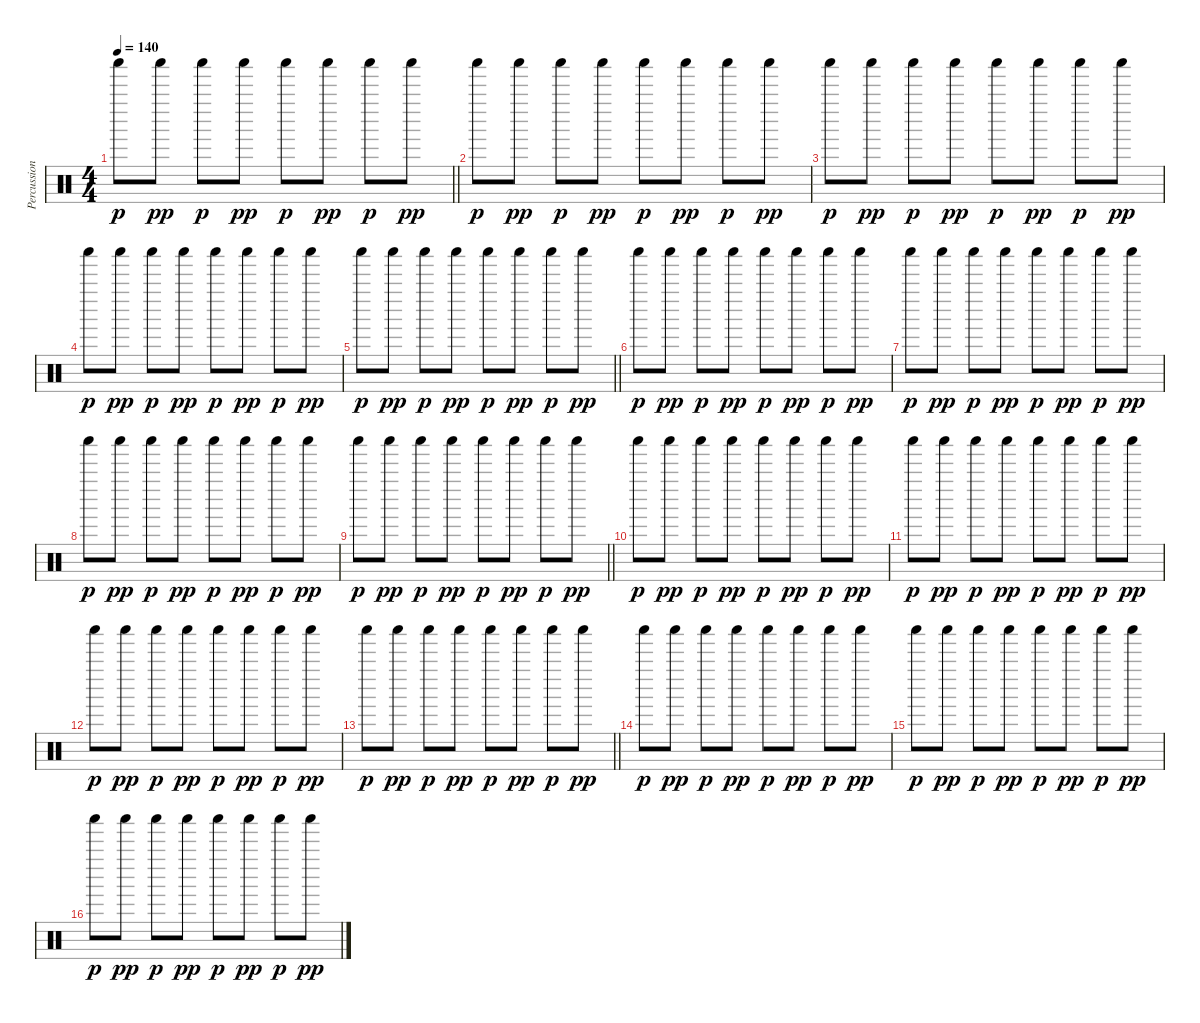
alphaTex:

\track ("Percussion" "Percussion") {instrument percussion}
\staff {score}
\articulation defaults
\ts (4 4)
\tempo 140
\clef neutral
\barLineRight lightlight
\ks c "Shaker (hit)".8{dy p} "Shaker (hit)".8{dy pp} "Shaker (hit)".8{dy p} "Shaker (hit)".8{dy pp} "Shaker (hit)".8{dy p} "Shaker (hit)".8{dy pp} "Shaker (hit)".8{dy p} "Shaker (hit)".8{dy pp}
|
"Shaker (hit)".8{dy p} "Shaker (hit)".8{dy pp} "Shaker (hit)".8{dy p} "Shaker (hit)".8{dy pp} "Shaker (hit)".8{dy p} "Shaker (hit)".8{dy pp} "Shaker (hit)".8{dy p} "Shaker (hit)".8{dy pp} |
"Shaker (hit)".8{dy p} "Shaker (hit)".8{dy pp} "Shaker (hit)".8{dy p} "Shaker (hit)".8{dy pp} "Shaker (hit)".8{dy p} "Shaker (hit)".8{dy pp} "Shaker (hit)".8{dy p} "Shaker (hit)".8{dy pp} |
"Shaker (hit)".8{dy p} "Shaker (hit)".8{dy pp} "Shaker (hit)".8{dy p} "Shaker (hit)".8{dy pp} "Shaker (hit)".8{dy p} "Shaker (hit)".8{dy pp} "Shaker (hit)".8{dy p} "Shaker (hit)".8{dy pp} |
\barLineRight lightlight "Shaker (hit)".8{dy p} "Shaker (hit)".8{dy pp} "Shaker (hit)".8{dy p} "Shaker (hit)".8{dy pp} "Shaker (hit)".8{dy p} "Shaker (hit)".8{dy pp} "Shaker (hit)".8{dy p} "Shaker (hit)".8{dy pp}
|
"Shaker (hit)".8{dy p} "Shaker (hit)".8{dy pp} "Shaker (hit)".8{dy p} "Shaker (hit)".8{dy pp} "Shaker (hit)".8{dy p} "Shaker (hit)".8{dy pp} "Shaker (hit)".8{dy p} "Shaker (hit)".8{dy pp} |
"Shaker (hit)".8{dy p} "Shaker (hit)".8{dy pp} "Shaker (hit)".8{dy p} "Shaker (hit)".8{dy pp} "Shaker (hit)".8{dy p} "Shaker (hit)".8{dy pp} "Shaker (hit)".8{dy p} "Shaker (hit)".8{dy pp} |
"Shaker (hit)".8{dy p} "Shaker (hit)".8{dy pp} "Shaker (hit)".8{dy p} "Shaker (hit)".8{dy pp} "Shaker (hit)".8{dy p} "Shaker (hit)".8{dy pp} "Shaker (hit)".8{dy p} "Shaker (hit)".8{dy pp} |
\barLineRight lightlight "Shaker (hit)".8{dy p} "Shaker (hit)".8{dy pp} "Shaker (hit)".8{dy p} "Shaker (hit)".8{dy pp} "Shaker (hit)".8{dy p} "Shaker (hit)".8{dy pp} "Shaker (hit)".8{dy p} "Shaker (hit)".8{dy pp}
|
"Shaker (hit)".8{dy p} "Shaker (hit)".8{dy pp} "Shaker (hit)".8{dy p} "Shaker (hit)".8{dy pp} "Shaker (hit)".8{dy p} "Shaker (hit)".8{dy pp} "Shaker (hit)".8{dy p} "Shaker (hit)".8{dy pp} |
"Shaker (hit)".8{dy p} "Shaker (hit)".8{dy pp} "Shaker (hit)".8{dy p} "Shaker (hit)".8{dy pp} "Shaker (hit)".8{dy p} "Shaker (hit)".8{dy pp} "Shaker (hit)".8{dy p} "Shaker (hit)".8{dy pp} |
"Shaker (hit)".8{dy p} "Shaker (hit)".8{dy pp} "Shaker (hit)".8{dy p} "Shaker (hit)".8{dy pp} "Shaker (hit)".8{dy p} "Shaker (hit)".8{dy pp} "Shaker (hit)".8{dy p} "Shaker (hit)".8{dy pp} |
\barLineRight lightlight "Shaker (hit)".8{dy p} "Shaker (hit)".8{dy pp} "Shaker (hit)".8{dy p} "Shaker (hit)".8{dy pp} "Shaker (hit)".8{dy p} "Shaker (hit)".8{dy pp} "Shaker (hit)".8{dy p} "Shaker (hit)".8{dy pp}
|
"Shaker (hit)".8{dy p} "Shaker (hit)".8{dy pp} "Shaker (hit)".8{dy p} "Shaker (hit)".8{dy pp} "Shaker (hit)".8{dy p} "Shaker (hit)".8{dy pp} "Shaker (hit)".8{dy p} "Shaker (hit)".8{dy pp} |
"Shaker (hit)".8{dy p} "Shaker (hit)".8{dy pp} "Shaker (hit)".8{dy p} "Shaker (hit)".8{dy pp} "Shaker (hit)".8{dy p} "Shaker (hit)".8{dy pp} "Shaker (hit)".8{dy p} "Shaker (hit)".8{dy pp} |
"Shaker (hit)".8{dy p} "Shaker (hit)".8{dy pp} "Shaker (hit)".8{dy p} "Shaker (hit)".8{dy pp} "Shaker (hit)".8{dy p} "Shaker (hit)".8{dy pp} "Shaker (hit)".8{dy p} "Shaker (hit)".8{dy pp}
